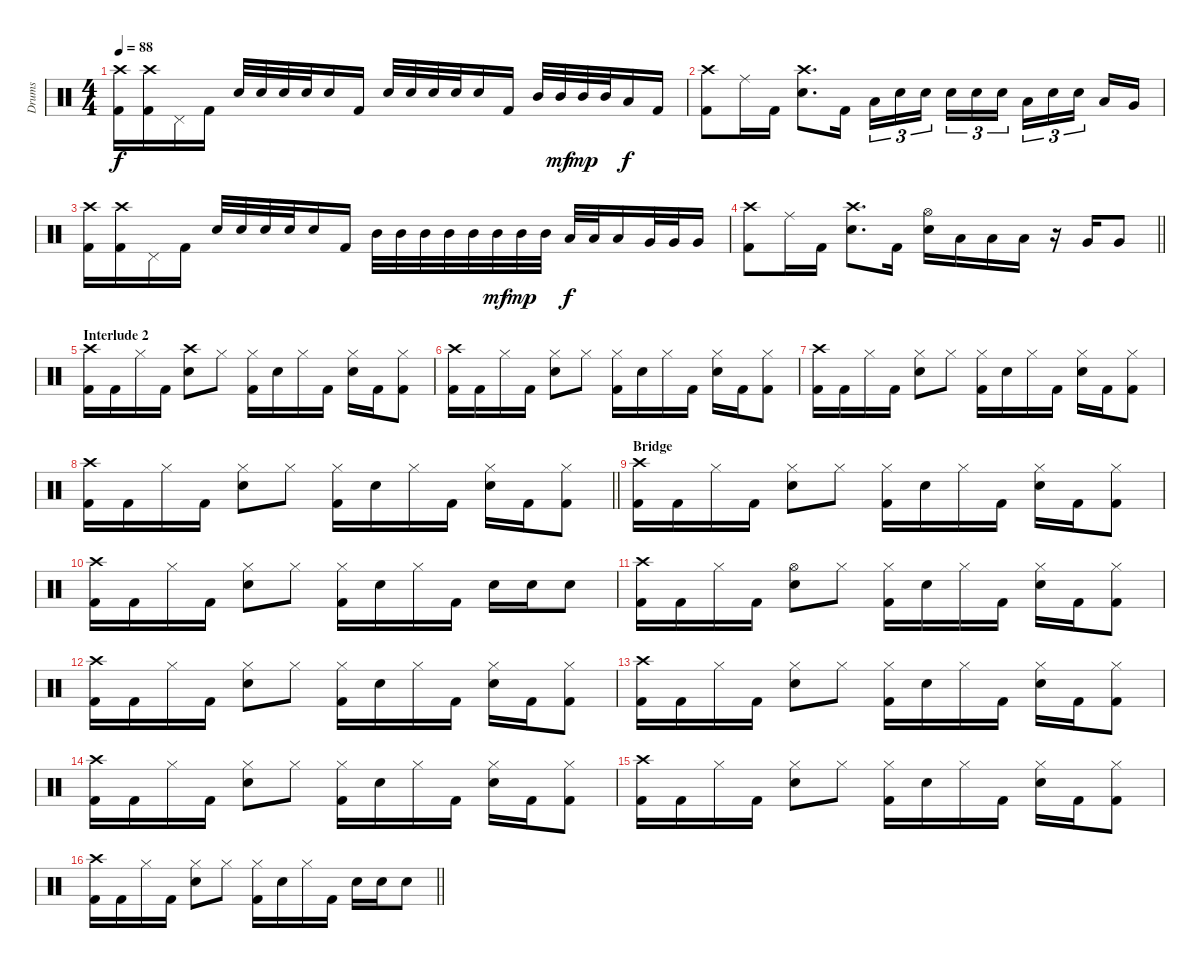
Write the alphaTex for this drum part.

\track ("Drums" "Drums") {instrument percussion}
\staff {score}
\articulation defaults
\ts (4 4)
\tempo 88
\clef neutral
\ks c
("Crash high (hit)" "Kick (hit) 2").16{dy f} ("Crash high (hit)" "Kick (hit) 2").16 "Pedal Hi-Hat (hit)".16 "Kick (hit) 2".16 "Snare (hit) 2".32 "Snare (hit) 2".32 "Snare (hit) 2".32 "Snare (hit) 2".32 "Snare (hit) 2".16 "Kick (hit) 2".16 "Snare (hit) 2".32 "Snare (hit) 2".32 "Snare (hit) 2".32 "Snare (hit) 2".32 "Snare (hit) 2".16 "Kick (hit) 2".16 "Mid Tom (hit)".32 "Mid Tom (hit)".32{dy mf} "Mid Tom (hit)".32{dy mp} "Mid Tom (hit)".32 "Low Tom (hit)".16{dy f} "Kick (hit) 2".16 |
("Crash high (hit)" "Kick (hit) 2").8 "Ride (middle)".16 "Kick (hit) 2".16 ("Crash high (hit)" "Snare (hit) 2").8{d} "Kick (hit) 2".16 "Low Tom (hit)".16{tu (3 2)} "Snare (hit) 2".16{tu (3 2)} "Snare (hit) 2".16{tu (3 2) beam splitsecondary} "Snare (hit) 2".16{tu (3 2)} "Snare (hit) 2".16{tu (3 2)} "Snare (hit) 2".16{tu (3 2)} "Low Tom (hit)".16{tu (3 2)} "Snare (hit) 2".16{tu (3 2)} "Snare (hit) 2".16{tu (3 2) beam splitsecondary} "Low Tom (hit)".16 "Very Low Tom (hit)".16 |
("Crash high (hit)" "Kick (hit) 2").16 ("Crash high (hit)" "Kick (hit) 2").16 "Pedal Hi-Hat (hit)".16 "Kick (hit) 2".16 "Snare (hit) 2".32 "Snare (hit) 2".32 "Snare (hit) 2".32 "Snare (hit) 2".32 "Snare (hit) 2".16 "Kick (hit) 2".16 "Mid Tom (hit)".32 "Mid Tom (hit)".32 "Mid Tom (hit)".32 "Mid Tom (hit)".32 "Mid Tom (hit)".32 "Mid Tom (hit)".32{dy mf} "Mid Tom (hit)".32{dy mp} "Mid Tom (hit)".32 "Low Tom (hit)".32{dy f} "Low Tom (hit)".32 "Low Tom (hit)".16 "Very Low Tom (hit)".32 "Very Low Tom (hit)".32 "Very Low Tom (hit)".16 |
\barLineRight lightlight
("Crash high (hit)" "Kick (hit) 2").8 "Ride (middle)".16 "Kick (hit) 2".16 ("Crash high (hit)" "Snare (hit) 2").8{d} "Kick (hit) 2".16 ("Hi-Hat (open)" "Snare (hit) 2").16 "Low Tom (hit)".16 "Low Tom (hit)".16 "Low Tom (hit)".16 r.16 "Very Low Tom (hit)".16 "Very Low Tom (hit)".8 |
\section ("" "Interlude 2")
("Crash high (hit)" "Kick (hit) 2").16 "Kick (hit) 2".16 "Hi-Hat (closed)".16 "Kick (hit) 2".16 ("Crash high (hit)" "Snare (hit) 2").8 "Hi-Hat (closed)".8 ("Hi-Hat (closed)" "Kick (hit) 2").16 "Snare (hit) 2".16 "Hi-Hat (closed)".16 "Kick (hit) 2".16 ("Hi-Hat (closed)" "Snare (hit) 2").16 "Kick (hit) 2".16 ("Hi-Hat (closed)" "Kick (hit) 2").8 |
("Crash high (hit)" "Kick (hit) 2").16 "Kick (hit) 2".16 "Hi-Hat (closed)".16 "Kick (hit) 2".16 ("Hi-Hat (closed)" "Snare (hit) 2").8 "Hi-Hat (closed)".8 ("Hi-Hat (closed)" "Kick (hit) 2").16 "Snare (hit) 2".16 "Hi-Hat (closed)".16 "Kick (hit) 2".16 ("Hi-Hat (closed)" "Snare (hit) 2").16 "Kick (hit) 2".16 ("Hi-Hat (closed)" "Kick (hit) 2").8 |
("Crash high (hit)" "Kick (hit) 2").16 "Kick (hit) 2".16 "Hi-Hat (closed)".16 "Kick (hit) 2".16 ("Hi-Hat (closed)" "Snare (hit) 2").8 "Hi-Hat (closed)".8 ("Hi-Hat (closed)" "Kick (hit) 2").16 "Snare (hit) 2".16 "Hi-Hat (closed)".16 "Kick (hit) 2".16 ("Hi-Hat (closed)" "Snare (hit) 2").16 "Kick (hit) 2".16 ("Hi-Hat (closed)" "Kick (hit) 2").8 |
\barLineRight lightlight
("Crash high (hit)" "Kick (hit) 2").16 "Kick (hit) 2".16 "Hi-Hat (closed)".16 "Kick (hit) 2".16 ("Hi-Hat (closed)" "Snare (hit) 2").8 "Hi-Hat (closed)".8 ("Hi-Hat (closed)" "Kick (hit) 2").16 "Snare (hit) 2".16 "Hi-Hat (closed)".16 "Kick (hit) 2".16 ("Hi-Hat (closed)" "Snare (hit) 2").16 "Kick (hit) 2".16 ("Hi-Hat (closed)" "Kick (hit) 2").8 |
\section ("" "Bridge")
("Crash high (hit)" "Kick (hit) 2").16 "Kick (hit) 2".16 "Hi-Hat (closed)".16 "Kick (hit) 2".16 ("Hi-Hat (closed)" "Snare (hit) 2").8 "Hi-Hat (closed)".8 ("Hi-Hat (closed)" "Kick (hit) 2").16 "Snare (hit) 2".16 "Hi-Hat (closed)".16 "Kick (hit) 2".16 ("Hi-Hat (closed)" "Snare (hit) 2").16 "Kick (hit) 2".16 ("Hi-Hat (closed)" "Kick (hit) 2").8 |
("Crash high (hit)" "Kick (hit) 2").16 "Kick (hit) 2".16 "Hi-Hat (closed)".16 "Kick (hit) 2".16 ("Hi-Hat (closed)" "Snare (hit) 2").8 "Hi-Hat (closed)".8 ("Hi-Hat (closed)" "Kick (hit) 2").16 "Snare (hit) 2".16 "Hi-Hat (closed)".16 "Kick (hit) 2".16 "Snare (hit) 2".16 "Snare (hit) 2".16 "Snare (hit) 2".8 |
("Crash high (hit)" "Kick (hit) 2").16 "Kick (hit) 2".16 "Hi-Hat (closed)".16 "Kick (hit) 2".16 ("Hi-Hat (open)" "Snare (hit) 2").8 "Hi-Hat (closed)".8 ("Hi-Hat (closed)" "Kick (hit) 2").16 "Snare (hit) 2".16 "Hi-Hat (closed)".16 "Kick (hit) 2".16 ("Hi-Hat (closed)" "Snare (hit) 2").16 "Kick (hit) 2".16 ("Hi-Hat (closed)" "Kick (hit) 2").8 |
("Crash high (hit)" "Kick (hit) 2").16 "Kick (hit) 2".16 "Hi-Hat (closed)".16 "Kick (hit) 2".16 ("Hi-Hat (closed)" "Snare (hit) 2").8 "Hi-Hat (closed)".8 ("Hi-Hat (closed)" "Kick (hit) 2").16 "Snare (hit) 2".16 "Hi-Hat (closed)".16 "Kick (hit) 2".16 ("Hi-Hat (closed)" "Snare (hit) 2").16 "Kick (hit) 2".16 ("Hi-Hat (closed)" "Kick (hit) 2").8 |
("Crash high (hit)" "Kick (hit) 2").16 "Kick (hit) 2".16 "Hi-Hat (closed)".16 "Kick (hit) 2".16 ("Hi-Hat (closed)" "Snare (hit) 2").8 "Hi-Hat (closed)".8 ("Hi-Hat (closed)" "Kick (hit) 2").16 "Snare (hit) 2".16 "Hi-Hat (closed)".16 "Kick (hit) 2".16 ("Hi-Hat (closed)" "Snare (hit) 2").16 "Kick (hit) 2".16 ("Hi-Hat (closed)" "Kick (hit) 2").8 |
("Crash high (hit)" "Kick (hit) 2").16 "Kick (hit) 2".16 "Hi-Hat (closed)".16 "Kick (hit) 2".16 ("Hi-Hat (closed)" "Snare (hit) 2").8 "Hi-Hat (closed)".8 ("Hi-Hat (closed)" "Kick (hit) 2").16 "Snare (hit) 2".16 "Hi-Hat (closed)".16 "Kick (hit) 2".16 ("Hi-Hat (closed)" "Snare (hit) 2").16 "Kick (hit) 2".16 ("Hi-Hat (closed)" "Kick (hit) 2").8 |
("Crash high (hit)" "Kick (hit) 2").16 "Kick (hit) 2".16 "Hi-Hat (closed)".16 "Kick (hit) 2".16 ("Hi-Hat (closed)" "Snare (hit) 2").8 "Hi-Hat (closed)".8 ("Hi-Hat (closed)" "Kick (hit) 2").16 "Snare (hit) 2".16 "Hi-Hat (closed)".16 "Kick (hit) 2".16 ("Hi-Hat (closed)" "Snare (hit) 2").16 "Kick (hit) 2".16 ("Hi-Hat (closed)" "Kick (hit) 2").8 |
\barLineRight lightlight
("Crash high (hit)" "Kick (hit) 2").16 "Kick (hit) 2".16 "Hi-Hat (closed)".16 "Kick (hit) 2".16 ("Hi-Hat (closed)" "Snare (hit) 2").8 "Hi-Hat (closed)".8 ("Hi-Hat (closed)" "Kick (hit) 2").16 "Snare (hit) 2".16 "Hi-Hat (closed)".16 "Kick (hit) 2".16 "Snare (hit) 2".16 "Snare (hit) 2".16 "Snare (hit) 2".8
